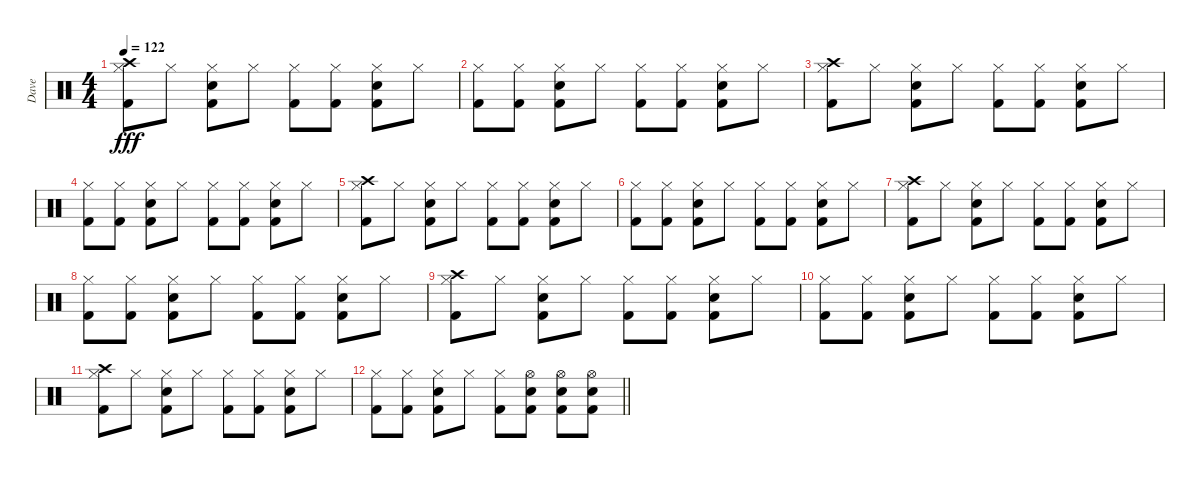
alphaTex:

\track ("Dave" "Dave") {instrument percussion}
\staff {score}
\articulation defaults
\ts (4 4)
\tempo 122
\clef neutral
\ks c
("Crash high (hit)" "Hi-Hat (closed)" "Kick (hit) 2").8{dy fff} "Hi-Hat (closed)".8 ("Hi-Hat (closed)" "Snare (hit) 2" "Kick (hit) 2").8 "Hi-Hat (closed)".8 ("Hi-Hat (closed)" "Kick (hit) 2").8 ("Hi-Hat (closed)" "Kick (hit) 2").8 ("Hi-Hat (closed)" "Snare (hit) 2" "Kick (hit) 2").8 "Hi-Hat (closed)".8 |
("Hi-Hat (closed)" "Kick (hit) 2").8 ("Hi-Hat (closed)" "Kick (hit) 2").8 ("Hi-Hat (closed)" "Snare (hit) 2" "Kick (hit) 2").8 "Hi-Hat (closed)".8 ("Hi-Hat (closed)" "Kick (hit) 2").8 ("Hi-Hat (closed)" "Kick (hit) 2").8 ("Hi-Hat (closed)" "Snare (hit) 2" "Kick (hit) 2").8 "Hi-Hat (closed)".8 |
("Crash high (hit)" "Hi-Hat (closed)" "Kick (hit) 2").8 "Hi-Hat (closed)".8 ("Hi-Hat (closed)" "Snare (hit) 2" "Kick (hit) 2").8 "Hi-Hat (closed)".8 ("Hi-Hat (closed)" "Kick (hit) 2").8 ("Hi-Hat (closed)" "Kick (hit) 2").8 ("Hi-Hat (closed)" "Snare (hit) 2" "Kick (hit) 2").8 "Hi-Hat (closed)".8 |
("Hi-Hat (closed)" "Kick (hit) 2").8 ("Hi-Hat (closed)" "Kick (hit) 2").8 ("Hi-Hat (closed)" "Snare (hit) 2" "Kick (hit) 2").8 "Hi-Hat (closed)".8 ("Hi-Hat (closed)" "Kick (hit) 2").8 ("Hi-Hat (closed)" "Kick (hit) 2").8 ("Hi-Hat (closed)" "Snare (hit) 2" "Kick (hit) 2").8 "Hi-Hat (closed)".8 |
("Crash high (hit)" "Hi-Hat (closed)" "Kick (hit) 2").8 "Hi-Hat (closed)".8 ("Hi-Hat (closed)" "Snare (hit) 2" "Kick (hit) 2").8 "Hi-Hat (closed)".8 ("Hi-Hat (closed)" "Kick (hit) 2").8 ("Hi-Hat (closed)" "Kick (hit) 2").8 ("Hi-Hat (closed)" "Snare (hit) 2" "Kick (hit) 2").8 "Hi-Hat (closed)".8 |
("Hi-Hat (closed)" "Kick (hit) 2").8 ("Hi-Hat (closed)" "Kick (hit) 2").8 ("Hi-Hat (closed)" "Snare (hit) 2" "Kick (hit) 2").8 "Hi-Hat (closed)".8 ("Hi-Hat (closed)" "Kick (hit) 2").8 ("Hi-Hat (closed)" "Kick (hit) 2").8 ("Hi-Hat (closed)" "Snare (hit) 2" "Kick (hit) 2").8 "Hi-Hat (closed)".8 |
("Crash high (hit)" "Hi-Hat (closed)" "Kick (hit) 2").8 "Hi-Hat (closed)".8 ("Hi-Hat (closed)" "Snare (hit) 2" "Kick (hit) 2").8 "Hi-Hat (closed)".8 ("Hi-Hat (closed)" "Kick (hit) 2").8 ("Hi-Hat (closed)" "Kick (hit) 2").8 ("Hi-Hat (closed)" "Snare (hit) 2" "Kick (hit) 2").8 "Hi-Hat (closed)".8 |
("Hi-Hat (closed)" "Kick (hit) 2").8 ("Hi-Hat (closed)" "Kick (hit) 2").8 ("Hi-Hat (closed)" "Snare (hit) 2" "Kick (hit) 2").8 "Hi-Hat (closed)".8 ("Hi-Hat (closed)" "Kick (hit) 2").8 ("Hi-Hat (closed)" "Kick (hit) 2").8 ("Hi-Hat (closed)" "Snare (hit) 2" "Kick (hit) 2").8 "Hi-Hat (closed)".8 |
("Crash high (hit)" "Hi-Hat (closed)" "Kick (hit) 2").8 "Hi-Hat (closed)".8 ("Hi-Hat (closed)" "Snare (hit) 2" "Kick (hit) 2").8 "Hi-Hat (closed)".8 ("Hi-Hat (closed)" "Kick (hit) 2").8 ("Hi-Hat (closed)" "Kick (hit) 2").8 ("Hi-Hat (closed)" "Snare (hit) 2" "Kick (hit) 2").8 "Hi-Hat (closed)".8 |
("Hi-Hat (closed)" "Kick (hit) 2").8 ("Hi-Hat (closed)" "Kick (hit) 2").8 ("Hi-Hat (closed)" "Snare (hit) 2" "Kick (hit) 2").8 "Hi-Hat (closed)".8 ("Hi-Hat (closed)" "Kick (hit) 2").8 ("Hi-Hat (closed)" "Kick (hit) 2").8 ("Hi-Hat (closed)" "Snare (hit) 2" "Kick (hit) 2").8 "Hi-Hat (closed)".8 |
("Crash high (hit)" "Hi-Hat (closed)" "Kick (hit) 2").8 "Hi-Hat (closed)".8 ("Hi-Hat (closed)" "Snare (hit) 2" "Kick (hit) 2").8 "Hi-Hat (closed)".8 ("Hi-Hat (closed)" "Kick (hit) 2").8 ("Hi-Hat (closed)" "Kick (hit) 2").8 ("Hi-Hat (closed)" "Snare (hit) 2" "Kick (hit) 2").8 "Hi-Hat (closed)".8 |
\barLineRight lightlight
("Hi-Hat (closed)" "Kick (hit) 2").8 ("Hi-Hat (closed)" "Kick (hit) 2").8 ("Hi-Hat (closed)" "Snare (hit) 2" "Kick (hit) 2").8 "Hi-Hat (closed)".8 ("Hi-Hat (closed)" "Kick (hit) 2").8 ("Hi-Hat (open)" "Snare (hit) 2" "Kick (hit) 2").8 ("Hi-Hat (open)" "Snare (hit) 2" "Kick (hit) 2").8 ("Hi-Hat (open)" "Snare (hit) 2" "Kick (hit) 2").8
